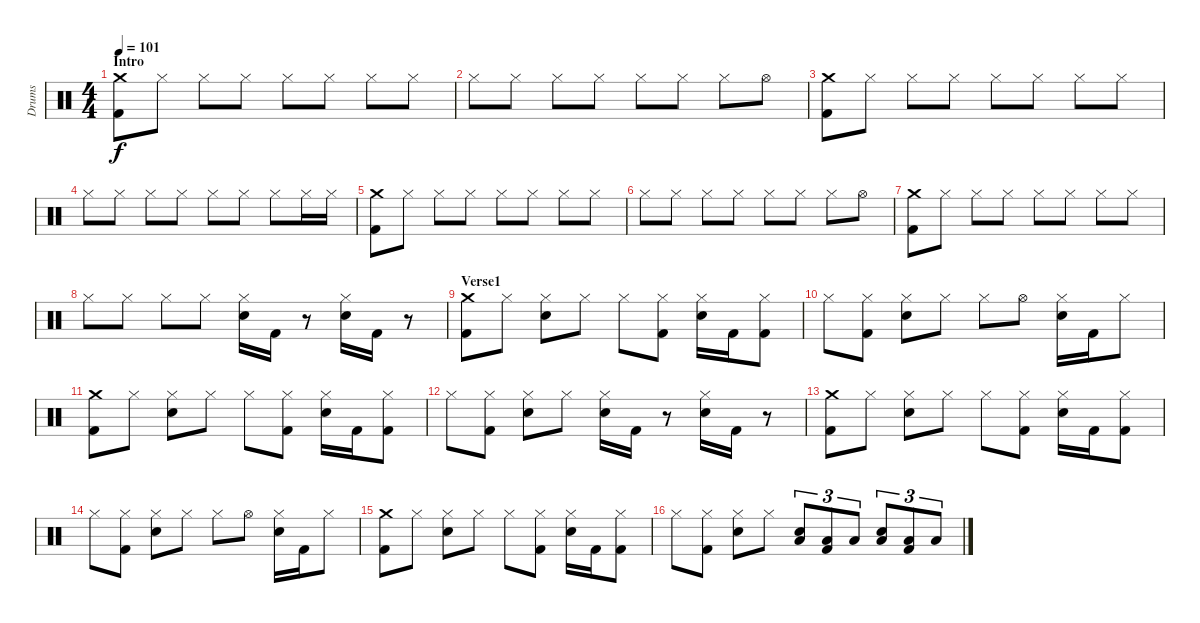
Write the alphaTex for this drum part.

\track ("Drums" "Drums") {instrument percussion}
\staff {score}
\articulation defaults
\ts (4 4)
\section ("" "Intro")
\tempo 101
\clef neutral
\ks c
("Crash medium (hit)" "Kick (hit) 2").8{dy f} "Hi-Hat (closed)".8 "Hi-Hat (closed)".8 "Hi-Hat (closed)".8 "Hi-Hat (closed)".8 "Hi-Hat (closed)".8 "Hi-Hat (closed)".8 "Hi-Hat (closed)".8 |
"Hi-Hat (closed)".8 "Hi-Hat (closed)".8 "Hi-Hat (closed)".8 "Hi-Hat (closed)".8 "Hi-Hat (closed)".8 "Hi-Hat (closed)".8 "Hi-Hat (closed)".8 "Hi-Hat (open)".8 |
("Crash medium (hit)" "Kick (hit) 2").8 "Hi-Hat (closed)".8 "Hi-Hat (closed)".8 "Hi-Hat (closed)".8 "Hi-Hat (closed)".8 "Hi-Hat (closed)".8 "Hi-Hat (closed)".8 "Hi-Hat (closed)".8 |
"Hi-Hat (closed)".8 "Hi-Hat (closed)".8 "Hi-Hat (closed)".8 "Hi-Hat (closed)".8 "Hi-Hat (closed)".8 "Hi-Hat (closed)".8 "Hi-Hat (closed)".8 "Hi-Hat (closed)".16 "Hi-Hat (closed)".16 |
("Crash medium (hit)" "Kick (hit) 2").8 "Hi-Hat (closed)".8 "Hi-Hat (closed)".8 "Hi-Hat (closed)".8 "Hi-Hat (closed)".8 "Hi-Hat (closed)".8 "Hi-Hat (closed)".8 "Hi-Hat (closed)".8 |
"Hi-Hat (closed)".8 "Hi-Hat (closed)".8 "Hi-Hat (closed)".8 "Hi-Hat (closed)".8 "Hi-Hat (closed)".8 "Hi-Hat (closed)".8 "Hi-Hat (closed)".8 "Hi-Hat (open)".8 |
("Crash medium (hit)" "Kick (hit) 2").8 "Hi-Hat (closed)".8 "Hi-Hat (closed)".8 "Hi-Hat (closed)".8 "Hi-Hat (closed)".8 "Hi-Hat (closed)".8 "Hi-Hat (closed)".8 "Hi-Hat (closed)".8 |
"Hi-Hat (closed)".8 "Hi-Hat (closed)".8 "Hi-Hat (closed)".8 "Hi-Hat (closed)".8 ("Hi-Hat (closed)" "Electric Snare (hit)").16 "Kick (hit) 2".16 r.8 ("Hi-Hat (closed)" "Electric Snare (hit)").16 "Kick (hit) 2".16 r.8 |
\section ("" "Verse1")
("Crash medium (hit)" "Kick (hit) 2").8 "Hi-Hat (closed)".8 ("Hi-Hat (closed)" "Electric Snare (hit)").8 "Hi-Hat (closed)".8 "Hi-Hat (closed)".8 ("Hi-Hat (closed)" "Kick (hit) 2").8 ("Hi-Hat (closed)" "Electric Snare (hit)").16 "Kick (hit) 2".16 ("Hi-Hat (closed)" "Kick (hit) 2").8 |
"Hi-Hat (closed)".8 ("Hi-Hat (closed)" "Kick (hit) 2").8 ("Hi-Hat (closed)" "Electric Snare (hit)").8 "Hi-Hat (closed)".8 "Hi-Hat (closed)".8 "Hi-Hat (open)".8 ("Hi-Hat (closed)" "Electric Snare (hit)").16 "Kick (hit) 2".16 "Hi-Hat (closed)".8 |
("Crash medium (hit)" "Kick (hit) 2").8 "Hi-Hat (closed)".8 ("Hi-Hat (closed)" "Electric Snare (hit)").8 "Hi-Hat (closed)".8 "Hi-Hat (closed)".8 ("Hi-Hat (closed)" "Kick (hit) 2").8 ("Hi-Hat (closed)" "Electric Snare (hit)").16 "Kick (hit) 2".16 ("Hi-Hat (closed)" "Kick (hit) 2").8 |
"Hi-Hat (closed)".8 ("Hi-Hat (closed)" "Kick (hit) 2").8 ("Hi-Hat (closed)" "Electric Snare (hit)").8 "Hi-Hat (closed)".8 ("Hi-Hat (closed)" "Electric Snare (hit)").16 "Kick (hit) 2".16 r.8 ("Hi-Hat (closed)" "Electric Snare (hit)").16 "Kick (hit) 2".16 r.8 |
("Crash medium (hit)" "Kick (hit) 2").8 "Hi-Hat (closed)".8 ("Hi-Hat (closed)" "Electric Snare (hit)").8 "Hi-Hat (closed)".8 "Hi-Hat (closed)".8 ("Hi-Hat (closed)" "Kick (hit) 2").8 ("Hi-Hat (closed)" "Electric Snare (hit)").16 "Kick (hit) 2".16 ("Hi-Hat (closed)" "Kick (hit) 2").8 |
"Hi-Hat (closed)".8 ("Hi-Hat (closed)" "Kick (hit) 2").8 ("Hi-Hat (closed)" "Electric Snare (hit)").8 "Hi-Hat (closed)".8 "Hi-Hat (closed)".8 "Hi-Hat (open)".8 ("Hi-Hat (closed)" "Electric Snare (hit)").16 "Kick (hit) 2".16 "Hi-Hat (closed)".8 |
("Crash medium (hit)" "Kick (hit) 2").8 "Hi-Hat (closed)".8 ("Hi-Hat (closed)" "Electric Snare (hit)").8 "Hi-Hat (closed)".8 "Hi-Hat (closed)".8 ("Hi-Hat (closed)" "Kick (hit) 2").8 ("Hi-Hat (closed)" "Electric Snare (hit)").16 "Kick (hit) 2".16 ("Hi-Hat (closed)" "Kick (hit) 2").8 |
"Hi-Hat (closed)".8 ("Hi-Hat (closed)" "Kick (hit) 2").8 ("Hi-Hat (closed)" "Electric Snare (hit)").8 "Hi-Hat (closed)".8 ("Low Tom (hit)" "Electric Snare (hit)").8{tu (3 2)} ("Low Tom (hit)" "Kick (hit) 2").8{tu (3 2)} "Low Tom (hit)".8{tu (3 2)} ("Low Tom (hit)" "Electric Snare (hit)").8{tu (3 2)} ("Low Tom (hit)" "Kick (hit) 2").8{tu (3 2)} "Low Tom (hit)".8{tu (3 2)}
